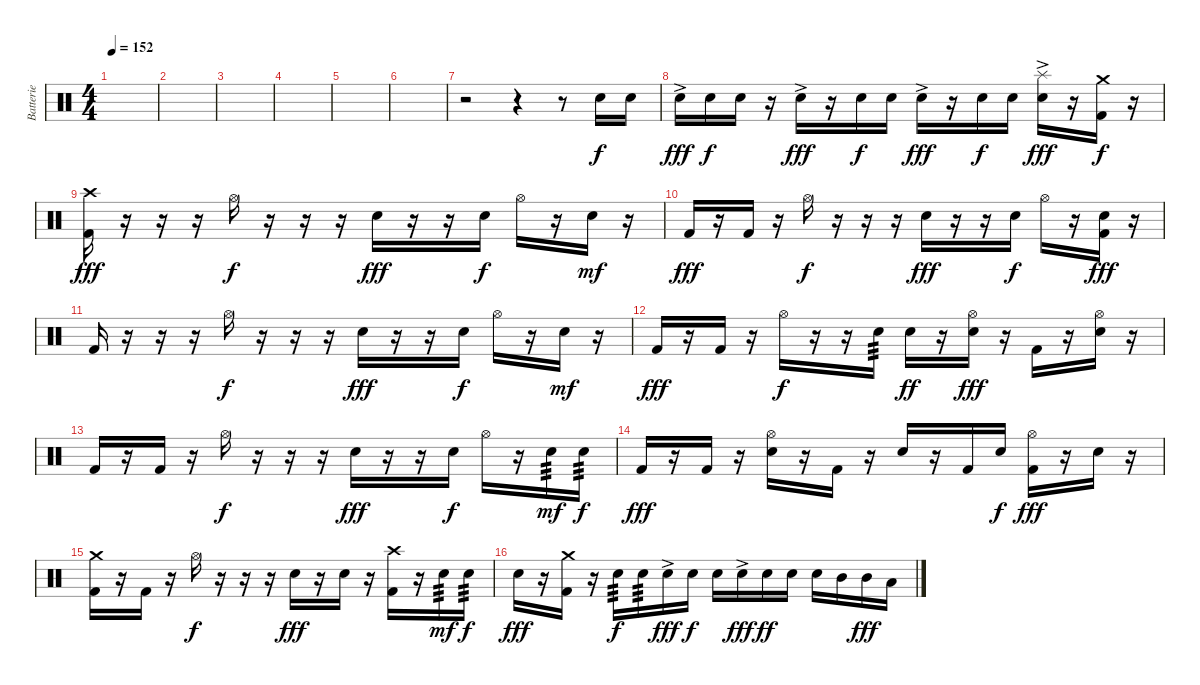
\track ("Batterie" "Batterie") {instrument percussion}
\staff {score}
\articulation defaults
\ts (4 4)
\section ("" "")
\tempo 152
\clef neutral
\ks c
|
|
|
|
|
|
r.2{volume 11} r.4 r.8 "Electric Snare (hit)".16 "Electric Snare (hit)".16 |
"Electric Snare (hit)"{ac}.16{dy fff} "Electric Snare (hit)".16{dy f} "Electric Snare (hit)".16 r.16 "Electric Snare (hit)"{ac}.16{dy fff} r.16 "Electric Snare (hit)".16{dy f} "Electric Snare (hit)".16 "Electric Snare (hit)"{ac}.16{dy fff} r.16 "Electric Snare (hit)".16{dy f} "Electric Snare (hit)".16 ("Splash (hit)" "Electric Snare (hit)"{ac}).16{dy fff} r.16 ("Crash medium (hit)" "Kick (hit) 2").16{dy f} r.16 |
("Crash high (hit)" "Kick (hit) 2").16{dy fff} r.16 r.16 r.16 "Hi-Hat (open)".16{dy f} r.16 r.16 r.16 "Electric Snare (hit)".16{dy fff} r.16 r.16 "Electric Snare (hit)".16{dy f} "Hi-Hat (open)".16 r.16 "Electric Snare (hit)".16{dy mf} r.16 |
"Kick (hit) 2".16{dy fff} r.16 "Kick (hit) 2".16 r.16 "Hi-Hat (open)".16{dy f} r.16 r.16 r.16 "Electric Snare (hit)".16{dy fff} r.16 r.16 "Electric Snare (hit)".16{dy f} "Hi-Hat (open)".16 r.16 ("Electric Snare (hit)" "Kick (hit) 2").16{dy fff} r.16 |
"Kick (hit) 2".16 r.16 r.16 r.16 "Hi-Hat (open)".16{dy f} r.16 r.16 r.16 "Electric Snare (hit)".16{dy fff} r.16 r.16 "Electric Snare (hit)".16{dy f} "Hi-Hat (open)".16 r.16 "Electric Snare (hit)".16{dy mf} r.16 |
"Kick (hit) 2".16{dy fff} r.16 "Kick (hit) 2".16 r.16 "Hi-Hat (open)".16{dy f} r.16 r.16 "Electric Snare (hit)".16{tp 3} "Electric Snare (hit)".16{dy ff} r.16 ("Hi-Hat (open)" "Electric Snare (hit)").16{dy fff} r.16 "Kick (hit) 2".16 r.16 ("Hi-Hat (open)" "Electric Snare (hit)").16 r.16 |
"Kick (hit) 2".16 r.16 "Kick (hit) 2".16 r.16 "Hi-Hat (open)".16{dy f} r.16 r.16 r.16 "Electric Snare (hit)".16{dy fff} r.16 r.16 "Electric Snare (hit)".16{dy f} "Hi-Hat (open)".16 r.16 "Electric Snare (hit)".16{tp 3 dy mf} "Electric Snare (hit)".16{tp 3 dy f} |
"Kick (hit) 2".16{dy fff} r.16 "Kick (hit) 2".16 r.16 ("Hi-Hat (open)" "Electric Snare (hit)").16 r.16 "Kick (hit) 2".16 r.16 "Electric Snare (hit)".16 r.16 "Kick (hit) 2".16 "Electric Snare (hit)".16{dy f} ("Hi-Hat (open)" "Kick (hit) 2").16{dy fff} r.16 "Electric Snare (hit)".16 r.16 |
("Crash medium (hit)" "Kick (hit) 2").16 r.16 "Kick (hit) 2".16 r.16 "Hi-Hat (open)".16{dy f} r.16 r.16 r.16 "Electric Snare (hit)".16{dy fff} r.16 "Electric Snare (hit)".16 r.16 ("Crash high (hit)" "Kick (hit) 2").16 r.16 "Electric Snare (hit)".16{tp 3 dy mf} "Electric Snare (hit)".16{tp 3 dy f} |
"Electric Snare (hit)".16{dy fff volume 14} r.16 ("Crash medium (hit)" "Kick (hit) 2").16 r.16 "Electric Snare (hit)".16{tp 3 dy f} "Electric Snare (hit)".16{tp 3} "Electric Snare (hit)"{ac}.16{dy fff} "Electric Snare (hit)".16{dy f} "Electric Snare (hit)".16 "Electric Snare (hit)"{ac}.16{dy fff} "Electric Snare (hit)".16{dy ff} "Electric Snare (hit)".16 "Electric Snare (hit)".16 "Mid Tom (hit)".16 "Mid Tom (hit)".16{dy fff} "Low Tom (hit)".16
